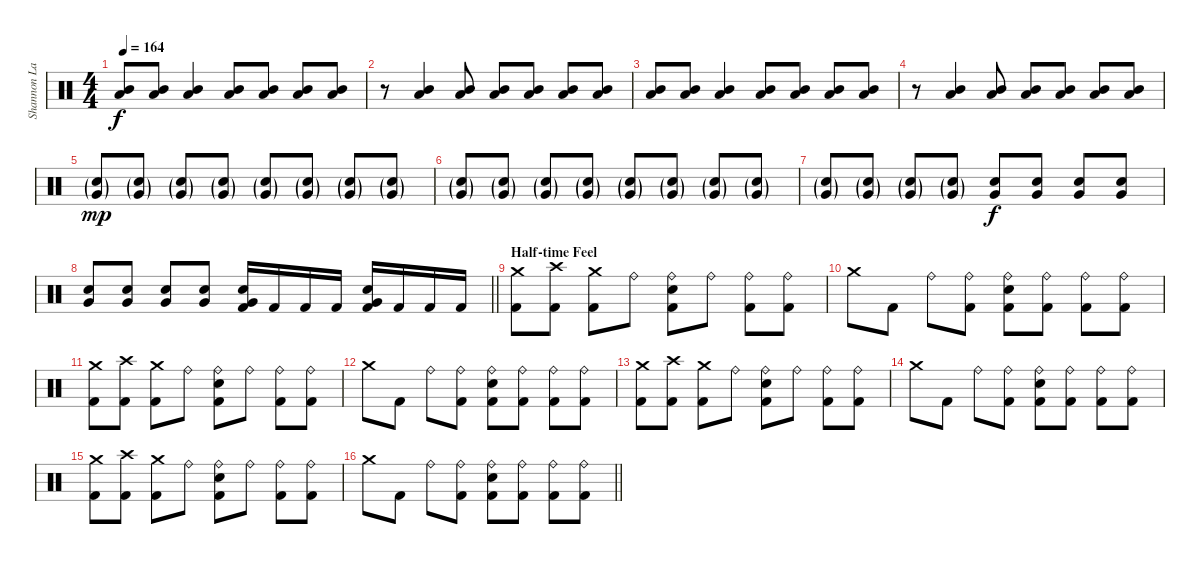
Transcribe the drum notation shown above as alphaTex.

\track ("Shannon Larkin" "Shannon La") {instrument percussion}
\staff {score}
\articulation defaults
\ts (4 4)
\section ("" "")
\tempo 164
\clef neutral
\ks c
("Mid Tom (hit)" "Low Tom (hit)").8{dy f} ("Mid Tom (hit)" "Low Tom (hit)").8 ("Mid Tom (hit)" "Low Tom (hit)").4 ("Mid Tom (hit)" "Low Tom (hit)").8 ("Mid Tom (hit)" "Low Tom (hit)").8 ("Mid Tom (hit)" "Low Tom (hit)").8 ("Mid Tom (hit)" "Low Tom (hit)").8 |
r.8 ("Mid Tom (hit)" "Low Tom (hit)").4 ("Mid Tom (hit)" "Low Tom (hit)").8 ("Mid Tom (hit)" "Low Tom (hit)").8 ("Mid Tom (hit)" "Low Tom (hit)").8 ("Mid Tom (hit)" "Low Tom (hit)").8 ("Mid Tom (hit)" "Low Tom (hit)").8 |
("Mid Tom (hit)" "Low Tom (hit)").8 ("Mid Tom (hit)" "Low Tom (hit)").8 ("Mid Tom (hit)" "Low Tom (hit)").4 ("Mid Tom (hit)" "Low Tom (hit)").8 ("Mid Tom (hit)" "Low Tom (hit)").8 ("Mid Tom (hit)" "Low Tom (hit)").8 ("Mid Tom (hit)" "Low Tom (hit)").8 |
r.8 ("Mid Tom (hit)" "Low Tom (hit)").4 ("Mid Tom (hit)" "Low Tom (hit)").8 ("Mid Tom (hit)" "Low Tom (hit)").8 ("Mid Tom (hit)" "Low Tom (hit)").8 ("Mid Tom (hit)" "Low Tom (hit)").8 ("Mid Tom (hit)" "Low Tom (hit)").8 |
("Electric Snare (hit)"{g} "Very Low Tom (hit)"{g}).8{dy mp} ("Electric Snare (hit)"{g} "Very Low Tom (hit)"{g}).8 ("Electric Snare (hit)"{g} "Very Low Tom (hit)"{g}).8 ("Electric Snare (hit)"{g} "Very Low Tom (hit)"{g}).8 ("Electric Snare (hit)"{g} "Very Low Tom (hit)"{g}).8 ("Electric Snare (hit)"{g} "Very Low Tom (hit)"{g}).8 ("Electric Snare (hit)"{g} "Very Low Tom (hit)"{g}).8 ("Electric Snare (hit)"{g} "Very Low Tom (hit)"{g}).8 |
("Electric Snare (hit)"{g} "Very Low Tom (hit)"{g}).8 ("Electric Snare (hit)"{g} "Very Low Tom (hit)"{g}).8 ("Electric Snare (hit)"{g} "Very Low Tom (hit)"{g}).8 ("Electric Snare (hit)"{g} "Very Low Tom (hit)"{g}).8 ("Electric Snare (hit)"{g} "Very Low Tom (hit)"{g}).8 ("Electric Snare (hit)"{g} "Very Low Tom (hit)"{g}).8 ("Electric Snare (hit)"{g} "Very Low Tom (hit)"{g}).8 ("Electric Snare (hit)"{g} "Very Low Tom (hit)"{g}).8 |
("Electric Snare (hit)"{g} "Very Low Tom (hit)"{g}).8 ("Electric Snare (hit)"{g} "Very Low Tom (hit)"{g}).8 ("Electric Snare (hit)"{g} "Very Low Tom (hit)"{g}).8 ("Electric Snare (hit)"{g} "Very Low Tom (hit)"{g}).8 ("Electric Snare (hit)" "Very Low Tom (hit)").8{dy f} ("Electric Snare (hit)" "Very Low Tom (hit)").8 ("Electric Snare (hit)" "Very Low Tom (hit)").8 ("Electric Snare (hit)" "Very Low Tom (hit)").8 |
\barLineRight lightlight
("Electric Snare (hit)" "Very Low Tom (hit)").8 ("Electric Snare (hit)" "Very Low Tom (hit)").8 ("Electric Snare (hit)" "Very Low Tom (hit)").8 ("Electric Snare (hit)" "Very Low Tom (hit)").8 ("Electric Snare (hit)" "Very Low Tom (hit)" "Kick (hit) 2").16 "Kick (hit) 2".16 "Kick (hit) 2".16 "Kick (hit) 2".16 ("Electric Snare (hit)" "Very Low Tom (hit)" "Kick (hit) 2").16 "Kick (hit) 2".16 "Kick (hit) 2".16 "Kick (hit) 2".16 |
\section ("" "Half-time Feel")
("Crash medium (hit)" "Kick (hit) 2").8 ("Crash high (hit)" "Kick (hit) 2").8 ("Crash medium (hit)" "Kick (hit) 2").8 "Ride (bell)".8 ("Ride (bell)" "Electric Snare (hit)" "Kick (hit) 2").8 "Ride (bell)".8 ("Ride (bell)" "Kick (hit) 2").8 ("Ride (bell)" "Kick (hit) 2").8 |
"Crash medium (hit)".8 "Kick (hit) 2".8 "Ride (bell)".8 ("Ride (bell)" "Kick (hit) 2").8 ("Ride (bell)" "Electric Snare (hit)" "Kick (hit) 2").8 ("Ride (bell)" "Kick (hit) 2").8 ("Ride (bell)" "Kick (hit) 2").8 ("Ride (bell)" "Kick (hit) 2").8 |
("Crash medium (hit)" "Kick (hit) 2").8 ("Crash high (hit)" "Kick (hit) 2").8 ("Crash medium (hit)" "Kick (hit) 2").8 "Ride (bell)".8 ("Ride (bell)" "Electric Snare (hit)" "Kick (hit) 2").8 "Ride (bell)".8 ("Ride (bell)" "Kick (hit) 2").8 ("Ride (bell)" "Kick (hit) 2").8 |
"Crash medium (hit)".8 "Kick (hit) 2".8 "Ride (bell)".8 ("Ride (bell)" "Kick (hit) 2").8 ("Ride (bell)" "Electric Snare (hit)" "Kick (hit) 2").8 ("Ride (bell)" "Kick (hit) 2").8 ("Ride (bell)" "Kick (hit) 2").8 ("Ride (bell)" "Kick (hit) 2").8 |
("Crash medium (hit)" "Kick (hit) 2").8 ("Crash high (hit)" "Kick (hit) 2").8 ("Crash medium (hit)" "Kick (hit) 2").8 "Ride (bell)".8 ("Ride (bell)" "Electric Snare (hit)" "Kick (hit) 2").8 "Ride (bell)".8 ("Ride (bell)" "Kick (hit) 2").8 ("Ride (bell)" "Kick (hit) 2").8 |
"Crash medium (hit)".8 "Kick (hit) 2".8 "Ride (bell)".8 ("Ride (bell)" "Kick (hit) 2").8 ("Ride (bell)" "Electric Snare (hit)" "Kick (hit) 2").8 ("Ride (bell)" "Kick (hit) 2").8 ("Ride (bell)" "Kick (hit) 2").8 ("Ride (bell)" "Kick (hit) 2").8 |
("Crash medium (hit)" "Kick (hit) 2").8 ("Crash high (hit)" "Kick (hit) 2").8 ("Crash medium (hit)" "Kick (hit) 2").8 "Ride (bell)".8 ("Ride (bell)" "Electric Snare (hit)" "Kick (hit) 2").8 "Ride (bell)".8 ("Ride (bell)" "Kick (hit) 2").8 ("Ride (bell)" "Kick (hit) 2").8 |
\barLineRight lightlight "Crash medium (hit)".8 "Kick (hit) 2".8 "Ride (bell)".8
("Ride (bell)" "Kick (hit) 2").8 ("Ride (bell)" "Electric Snare (hit)" "Kick (hit) 2").8 ("Ride (bell)" "Kick (hit) 2").8 ("Ride (bell)" "Kick (hit) 2").8 ("Ride (bell)" "Kick (hit) 2").8
